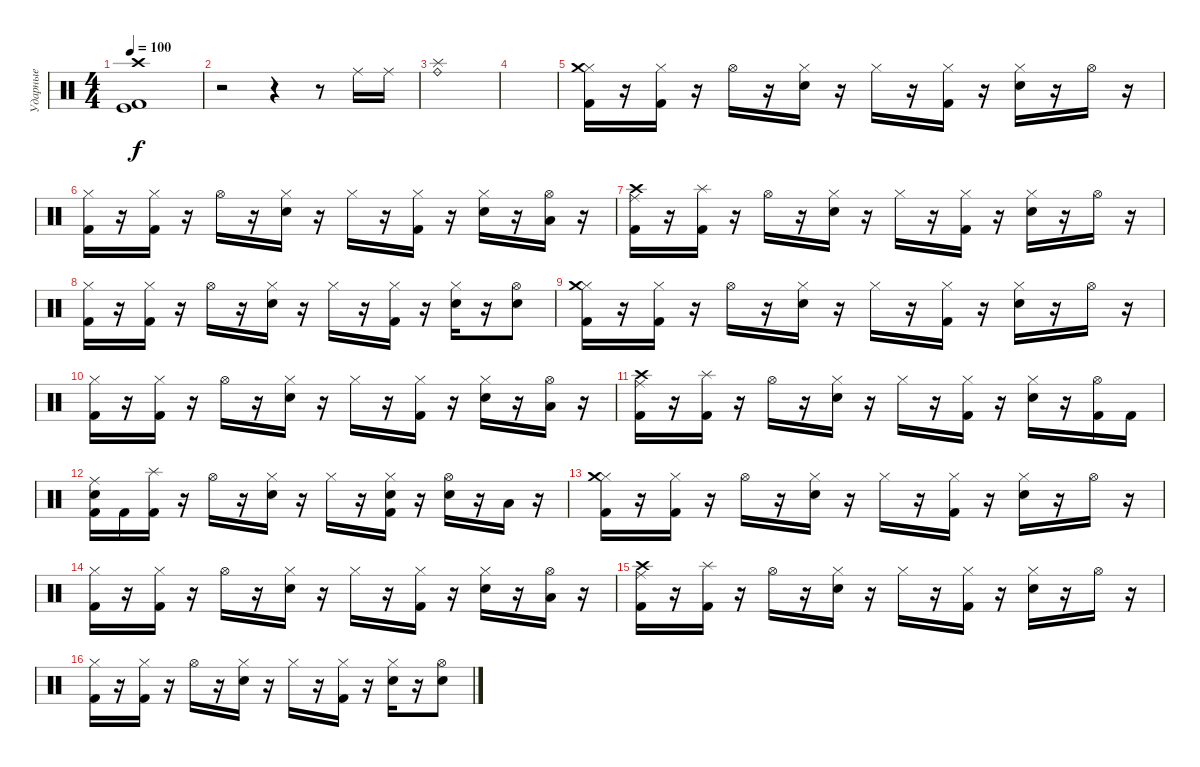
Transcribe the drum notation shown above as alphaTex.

\track ("Ударные" "Ударные") {instrument percussion}
\staff {score}
\articulation defaults
\ts (4 4)
\tempo 100
\clef neutral
\ks c
("Crash high (hit)" "Kick (hit) 2" "Kick (hit)").1{dy f} |
r.2 r.4 r.8 "Ride (middle)".16 "Ride (middle)".16 |
("Ride (bell)" "Splash (hit)").1 |
|
("Hi-Hat (closed)" "Crash medium (hit)" "Kick (hit) 2").16 r.16 ("Hi-Hat (closed)" "Kick (hit) 2").16 r.16 "Hi-Hat (open)".16 r.16 ("Hi-Hat (closed)" "Electric Snare (hit)").16 r.16 "Hi-Hat (closed)".16 r.16 ("Hi-Hat (closed)" "Kick (hit) 2").16 r.16 ("Hi-Hat (closed)" "Electric Snare (hit)").16 r.16 "Hi-Hat (open)".16 r.16 |
("Hi-Hat (closed)" "Kick (hit) 2").16 r.16 ("Hi-Hat (closed)" "Kick (hit) 2").16 r.16 "Hi-Hat (open)".16 r.16 ("Hi-Hat (closed)" "Electric Snare (hit)").16 r.16 "Hi-Hat (closed)".16 r.16 ("Hi-Hat (closed)" "Kick (hit) 2").16 r.16 ("Hi-Hat (closed)" "Electric Snare (hit)").16 r.16 ("Hi-Hat (open)" "Low Tom (hit)").16 r.16 |
("Ride (middle)" "Crash high (hit)" "Kick (hit) 2").16 r.16 ("Splash (hit)" "Kick (hit) 2").16 r.16 "Hi-Hat (open)".16 r.16 ("Hi-Hat (closed)" "Electric Snare (hit)").16 r.16 "Hi-Hat (closed)".16 r.16 ("Hi-Hat (closed)" "Kick (hit) 2").16 r.16 ("Hi-Hat (closed)" "Electric Snare (hit)").16 r.16 "Hi-Hat (open)".16 r.16 |
("Hi-Hat (closed)" "Kick (hit) 2").16 r.16 ("Hi-Hat (closed)" "Kick (hit) 2").16 r.16 "Hi-Hat (open)".16 r.16 ("Hi-Hat (closed)" "Electric Snare (hit)").16 r.16 "Hi-Hat (closed)".16 r.16 ("Hi-Hat (closed)" "Kick (hit) 2").16 r.16 ("Hi-Hat (closed)" "Electric Snare (hit)").16 r.16 ("Hi-Hat (open)" "Electric Snare (hit)").8 |
("Hi-Hat (closed)" "Crash medium (hit)" "Kick (hit) 2").16 r.16 ("Hi-Hat (closed)" "Kick (hit) 2").16 r.16 "Hi-Hat (open)".16 r.16 ("Hi-Hat (closed)" "Electric Snare (hit)").16 r.16 "Hi-Hat (closed)".16 r.16 ("Hi-Hat (closed)" "Kick (hit) 2").16 r.16 ("Hi-Hat (closed)" "Electric Snare (hit)").16 r.16 "Hi-Hat (open)".16 r.16 |
("Hi-Hat (closed)" "Kick (hit) 2").16 r.16 ("Hi-Hat (closed)" "Kick (hit) 2").16 r.16 "Hi-Hat (open)".16 r.16 ("Hi-Hat (closed)" "Electric Snare (hit)").16 r.16 "Hi-Hat (closed)".16 r.16 ("Hi-Hat (closed)" "Kick (hit) 2").16 r.16 ("Hi-Hat (closed)" "Electric Snare (hit)").16 r.16 ("Hi-Hat (open)" "Low Tom (hit)").16 r.16 |
("Ride (middle)" "Crash high (hit)" "Kick (hit) 2").16 r.16 ("Splash (hit)" "Kick (hit) 2").16 r.16 "Hi-Hat (open)".16 r.16 ("Hi-Hat (closed)" "Electric Snare (hit)").16 r.16 "Hi-Hat (closed)".16 r.16 ("Hi-Hat (closed)" "Kick (hit) 2").16 r.16 ("Hi-Hat (closed)" "Electric Snare (hit)").16 r.16 ("Hi-Hat (open)" "Kick (hit) 2").16 "Kick (hit) 2".16 |
("Ride (middle)" "Electric Snare (hit)" "Kick (hit) 2").16 "Kick (hit) 2".16 ("Splash (hit)" "Kick (hit) 2").16 r.16 "Hi-Hat (open)".16 r.16 ("Hi-Hat (closed)" "Electric Snare (hit)").16 r.16 "Hi-Hat (closed)".16 r.16 ("Hi-Hat (closed)" "Electric Snare (hit)" "Kick (hit) 2").16 r.16 ("Hi-Hat (open)" "Electric Snare (hit)").16 r.16 "Low Tom (hit)".16 r.16 |
("Hi-Hat (closed)" "Crash medium (hit)" "Kick (hit) 2").16 r.16 ("Hi-Hat (closed)" "Kick (hit) 2").16 r.16 "Hi-Hat (open)".16 r.16 ("Hi-Hat (closed)" "Electric Snare (hit)").16 r.16 "Hi-Hat (closed)".16 r.16 ("Hi-Hat (closed)" "Kick (hit) 2").16 r.16 ("Hi-Hat (closed)" "Electric Snare (hit)").16 r.16 "Hi-Hat (open)".16 r.16 |
("Hi-Hat (closed)" "Kick (hit) 2").16 r.16 ("Hi-Hat (closed)" "Kick (hit) 2").16 r.16 "Hi-Hat (open)".16 r.16 ("Hi-Hat (closed)" "Electric Snare (hit)").16 r.16 "Hi-Hat (closed)".16 r.16 ("Hi-Hat (closed)" "Kick (hit) 2").16 r.16 ("Hi-Hat (closed)" "Electric Snare (hit)").16 r.16 ("Hi-Hat (open)" "Low Tom (hit)").16 r.16 |
("Ride (middle)" "Crash high (hit)" "Kick (hit) 2").16 r.16 ("Splash (hit)" "Kick (hit) 2").16 r.16 "Hi-Hat (open)".16 r.16 ("Hi-Hat (closed)" "Electric Snare (hit)").16 r.16 "Hi-Hat (closed)".16 r.16 ("Hi-Hat (closed)" "Kick (hit) 2").16 r.16 ("Hi-Hat (closed)" "Electric Snare (hit)").16 r.16 "Hi-Hat (open)".16 r.16 |
("Hi-Hat (closed)" "Kick (hit) 2").16 r.16 ("Hi-Hat (closed)" "Kick (hit) 2").16 r.16 "Hi-Hat (open)".16 r.16 ("Hi-Hat (closed)" "Electric Snare (hit)").16 r.16 "Hi-Hat (closed)".16 r.16 ("Hi-Hat (closed)" "Kick (hit) 2").16 r.16 ("Hi-Hat (closed)" "Electric Snare (hit)").16 r.16 ("Hi-Hat (open)" "Electric Snare (hit)").8
